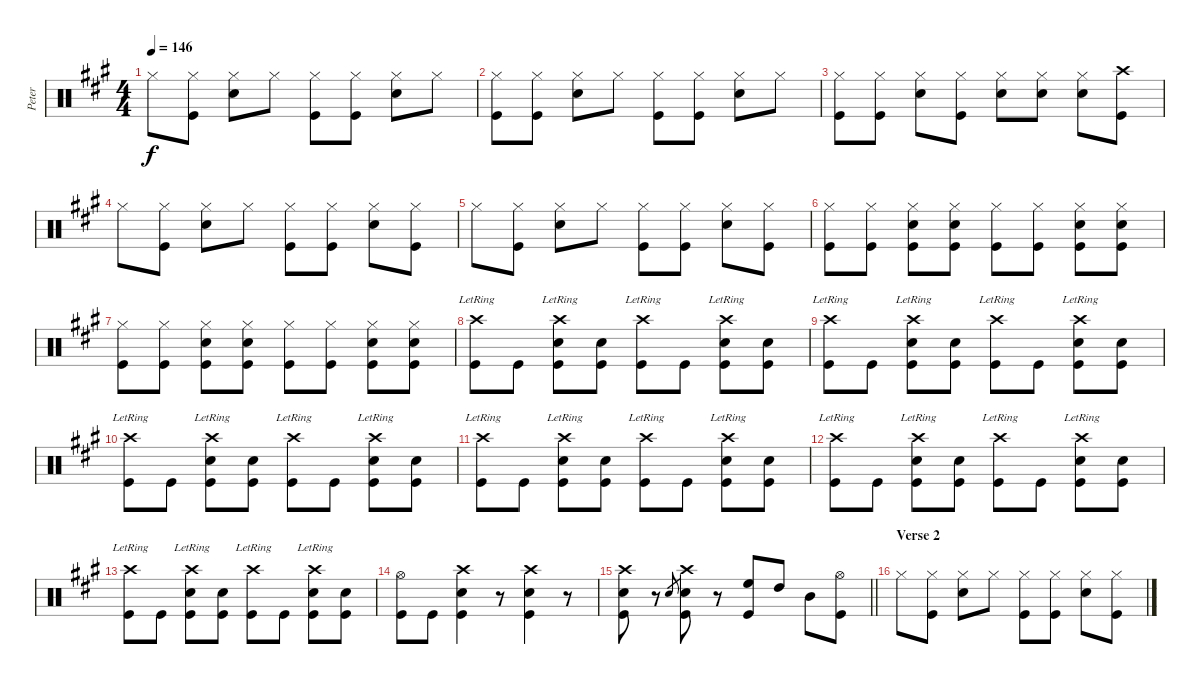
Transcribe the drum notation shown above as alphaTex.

\track ("Peter" "Peter") {instrument percussion}
\staff {score}
\articulation defaults
\ts (4 4)
\tempo 146
\clef neutral
\ks a "Hi-Hat (closed)".8{dy f}
("Hi-Hat (closed)" "Kick (hit)").8 ("Hi-Hat (closed)" "Snare (hit) 2").8 "Hi-Hat (closed)".8 ("Hi-Hat (closed)" "Kick (hit)").8 ("Hi-Hat (closed)" "Kick (hit)").8 ("Hi-Hat (closed)" "Snare (hit) 2").8 "Hi-Hat (closed)".8 |
("Hi-Hat (closed)" "Kick (hit)").8 ("Hi-Hat (closed)" "Kick (hit)").8 ("Hi-Hat (closed)" "Snare (hit) 2").8 "Hi-Hat (closed)".8 ("Hi-Hat (closed)" "Kick (hit)").8 ("Hi-Hat (closed)" "Kick (hit)").8 ("Hi-Hat (closed)" "Snare (hit) 2").8 "Hi-Hat (closed)".8 |
("Hi-Hat (closed)" "Kick (hit)").8 ("Hi-Hat (closed)" "Kick (hit)").8 ("Hi-Hat (closed)" "Snare (hit) 2").8 ("Hi-Hat (closed)" "Kick (hit)").8 ("Hi-Hat (closed)" "Snare (hit) 2").8 ("Hi-Hat (closed)" "Snare (hit) 2").8 ("Hi-Hat (closed)" "Snare (hit) 2").8 ("Crash high (hit)" "Kick (hit)").8 |
"Hi-Hat (closed)".8 ("Hi-Hat (closed)" "Kick (hit)").8 ("Hi-Hat (closed)" "Snare (hit) 2").8 "Hi-Hat (closed)".8 ("Hi-Hat (closed)" "Kick (hit)").8 ("Hi-Hat (closed)" "Kick (hit)").8 ("Hi-Hat (closed)" "Snare (hit) 2").8 ("Hi-Hat (closed)" "Kick (hit)").8 |
"Hi-Hat (closed)".8 ("Hi-Hat (closed)" "Kick (hit)").8 ("Hi-Hat (closed)" "Snare (hit) 2").8 "Hi-Hat (closed)".8 ("Hi-Hat (closed)" "Kick (hit)").8 ("Hi-Hat (closed)" "Kick (hit)").8 ("Hi-Hat (closed)" "Snare (hit) 2").8 ("Hi-Hat (closed)" "Kick (hit)").8 |
("Hi-Hat (closed)" "Kick (hit)").8 ("Hi-Hat (closed)" "Kick (hit)").8 ("Hi-Hat (closed)" "Snare (hit) 2" "Kick (hit)").8 ("Hi-Hat (closed)" "Snare (hit) 2" "Kick (hit)").8 ("Hi-Hat (closed)" "Kick (hit)").8 ("Hi-Hat (closed)" "Kick (hit)").8 ("Hi-Hat (closed)" "Snare (hit) 2" "Kick (hit)").8 ("Hi-Hat (closed)" "Snare (hit) 2" "Kick (hit)").8 |
("Hi-Hat (closed)" "Kick (hit)").8 ("Hi-Hat (closed)" "Kick (hit)").8 ("Hi-Hat (closed)" "Snare (hit) 2" "Kick (hit)").8 ("Hi-Hat (closed)" "Snare (hit) 2" "Kick (hit)").8 ("Hi-Hat (closed)" "Kick (hit)").8 ("Hi-Hat (closed)" "Kick (hit)").8 ("Hi-Hat (closed)" "Snare (hit) 2" "Kick (hit)").8 ("Hi-Hat (closed)" "Snare (hit) 2" "Kick (hit)").8 |
("Crash high (hit)"{lr} "Kick (hit)").8 "Kick (hit)".8 ("Crash high (hit)"{lr} "Snare (hit) 2" "Kick (hit)").8 ("Snare (hit) 2" "Kick (hit)").8 ("Crash high (hit)"{lr} "Kick (hit)").8 "Kick (hit)".8 ("Crash high (hit)"{lr} "Snare (hit) 2" "Kick (hit)").8 ("Snare (hit) 2" "Kick (hit)").8 |
("Crash high (hit)"{lr} "Kick (hit)").8 "Kick (hit)".8 ("Crash high (hit)"{lr} "Snare (hit) 2" "Kick (hit)").8 ("Snare (hit) 2" "Kick (hit)").8 ("Crash high (hit)"{lr} "Kick (hit)").8 "Kick (hit)".8 ("Crash high (hit)"{lr} "Snare (hit) 2" "Kick (hit)").8 ("Snare (hit) 2" "Kick (hit)").8 |
("Crash high (hit)"{lr} "Kick (hit)").8 "Kick (hit)".8 ("Crash high (hit)"{lr} "Snare (hit) 2" "Kick (hit)").8 ("Snare (hit) 2" "Kick (hit)").8 ("Crash high (hit)"{lr} "Kick (hit)").8 "Kick (hit)".8 ("Crash high (hit)"{lr} "Snare (hit) 2" "Kick (hit)").8 ("Snare (hit) 2" "Kick (hit)").8 |
("Crash high (hit)"{lr} "Kick (hit)").8 "Kick (hit)".8 ("Crash high (hit)"{lr} "Snare (hit) 2" "Kick (hit)").8 ("Snare (hit) 2" "Kick (hit)").8 ("Crash high (hit)"{lr} "Kick (hit)").8 "Kick (hit)".8 ("Crash high (hit)"{lr} "Snare (hit) 2" "Kick (hit)").8 ("Snare (hit) 2" "Kick (hit)").8 |
("Crash high (hit)"{lr} "Kick (hit)").8 "Kick (hit)".8 ("Crash high (hit)"{lr} "Snare (hit) 2" "Kick (hit)").8 ("Snare (hit) 2" "Kick (hit)").8 ("Crash high (hit)"{lr} "Kick (hit)").8 "Kick (hit)".8 ("Crash high (hit)"{lr} "Snare (hit) 2" "Kick (hit)").8 ("Snare (hit) 2" "Kick (hit)").8 |
("Crash high (hit)"{lr} "Kick (hit)").8 "Kick (hit)".8 ("Crash high (hit)"{lr} "Snare (hit) 2" "Kick (hit)").8 ("Snare (hit) 2" "Kick (hit)").8 ("Crash high (hit)"{lr} "Kick (hit)").8 "Kick (hit)".8 ("Crash high (hit)"{lr} "Snare (hit) 2" "Kick (hit)").8 ("Snare (hit) 2" "Kick (hit)").8 |
("Hi-Hat (open)" "Kick (hit)").8 "Kick (hit)".8 ("Crash high (hit)" "Snare (hit) 2" "Kick (hit)").4 r.8 ("Crash high (hit)" "Snare (hit) 2" "Kick (hit)").4 r.8 |
\barLineRight lightlight
("Crash high (hit)" "Snare (hit) 2" "Kick (hit)").8 r.8 "Snare (hit) 2".8{gr} ("Crash high (hit)" "Snare (hit) 2" "Kick (hit)").8 r.8 ("High Floor Tom (hit)" "Kick (hit)").8 "High Tom (hit)".8 "Mid Tom (hit)".8 ("Hi-Hat (open)" "Kick (hit)").8 |
\section ("" "Verse 2")
"Hi-Hat (closed)".8 ("Hi-Hat (closed)" "Kick (hit)").8 ("Hi-Hat (closed)" "Snare (hit) 2").8 "Hi-Hat (closed)".8 ("Hi-Hat (closed)" "Kick (hit)").8 ("Hi-Hat (closed)" "Kick (hit)").8 ("Hi-Hat (closed)" "Snare (hit) 2").8 ("Hi-Hat (closed)" "Kick (hit)").8
